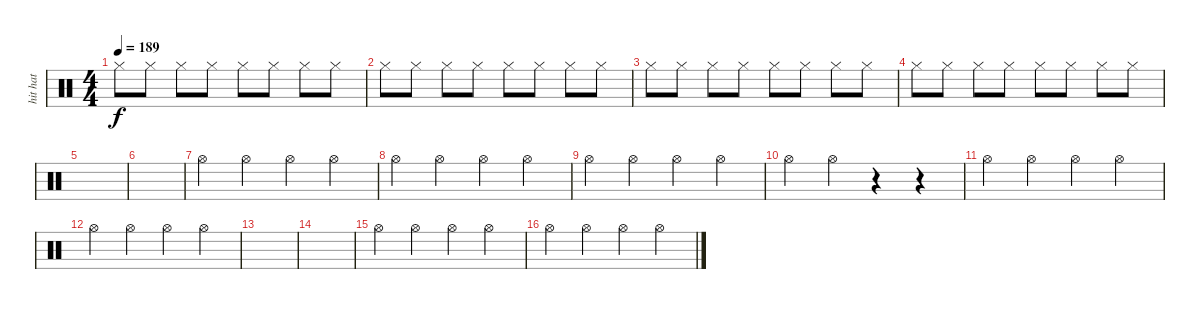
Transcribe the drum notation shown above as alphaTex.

\track ("hit hat" "hit hat") {instrument percussion}
\staff {score}
\articulation defaults
\ts (4 4)
\tempo 189
\clef neutral
\ks c "Hi-Hat (closed)".8{dy f} "Hi-Hat (closed)".8 "Hi-Hat (closed)".8 "Hi-Hat (closed)".8 "Hi-Hat (closed)".8 "Hi-Hat (closed)".8 "Hi-Hat (closed)".8 "Hi-Hat (closed)".8
|
"Hi-Hat (closed)".8 "Hi-Hat (closed)".8 "Hi-Hat (closed)".8 "Hi-Hat (closed)".8 "Hi-Hat (closed)".8 "Hi-Hat (closed)".8 "Hi-Hat (closed)".8 "Hi-Hat (closed)".8 |
"Hi-Hat (closed)".8 "Hi-Hat (closed)".8 "Hi-Hat (closed)".8 "Hi-Hat (closed)".8 "Hi-Hat (closed)".8 "Hi-Hat (closed)".8 "Hi-Hat (closed)".8 "Hi-Hat (closed)".8 |
"Hi-Hat (closed)".8 "Hi-Hat (closed)".8 "Hi-Hat (closed)".8 "Hi-Hat (closed)".8 "Hi-Hat (closed)".8 "Hi-Hat (closed)".8 "Hi-Hat (closed)".8 "Hi-Hat (closed)".8 |
|
|
"Hi-Hat (open)".4 "Hi-Hat (open)".4 "Hi-Hat (open)".4 "Hi-Hat (open)".4 |
"Hi-Hat (open)".4 "Hi-Hat (open)".4 "Hi-Hat (open)".4 "Hi-Hat (open)".4 |
"Hi-Hat (open)".4 "Hi-Hat (open)".4 "Hi-Hat (open)".4 "Hi-Hat (open)".4 |
"Hi-Hat (open)".4 "Hi-Hat (open)".4 r.4 r.4 |
"Hi-Hat (open)".4 "Hi-Hat (open)".4 "Hi-Hat (open)".4 "Hi-Hat (open)".4 |
"Hi-Hat (open)".4 "Hi-Hat (open)".4 "Hi-Hat (open)".4 "Hi-Hat (open)".4 |
|
|
"Hi-Hat (open)".4 "Hi-Hat (open)".4 "Hi-Hat (open)".4 "Hi-Hat (open)".4 |
"Hi-Hat (open)".4 "Hi-Hat (open)".4 "Hi-Hat (open)".4 "Hi-Hat (open)".4
